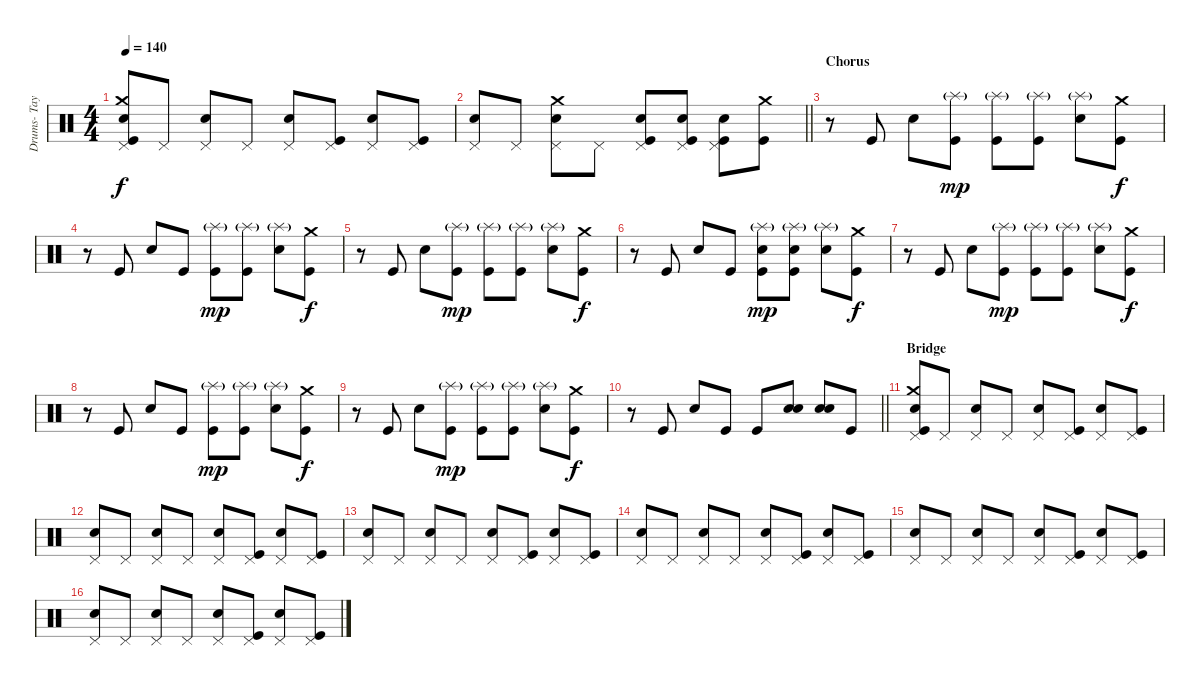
\track ("Drums- Taylor Hawkins" "Drums- Tay") {instrument percussion}
\staff {score}
\articulation defaults
\ts (4 4)
\tempo 140
\clef neutral
\ks c
("Kick (hit)" "Crash medium (hit)" "Snare (hit) 2" "Pedal Hi-Hat (hit)").8{dy f} "Pedal Hi-Hat (hit)".8 ("Snare (hit) 2" "Pedal Hi-Hat (hit)").8 "Pedal Hi-Hat (hit)".8 ("Snare (hit) 2" "Pedal Hi-Hat (hit)").8 ("Pedal Hi-Hat (hit)" "Kick (hit)").8 ("Snare (hit) 2" "Pedal Hi-Hat (hit)").8 ("Pedal Hi-Hat (hit)" "Kick (hit)").8 |
\barLineRight lightlight
("Snare (hit) 2" "Pedal Hi-Hat (hit)").8 "Pedal Hi-Hat (hit)".8 ("Crash medium (hit)" "Snare (hit) 2" "Pedal Hi-Hat (hit)").8 "Pedal Hi-Hat (hit)".8 ("Pedal Hi-Hat (hit)" "Snare (hit) 2" "Kick (hit)").8 ("Pedal Hi-Hat (hit)" "Snare (hit) 2" "Kick (hit)").8 ("Pedal Hi-Hat (hit)" "Snare (hit) 2" "Kick (hit)").8 ("Crash medium (hit)" "Kick (hit)").8 |
\section ("" "Chorus")
r.8 "Kick (hit)".8 "Snare (hit) 2".8 ("Splash (hit)"{g} "Kick (hit)").8{dy mp} ("Splash (hit)"{g} "Kick (hit)").8 ("Splash (hit)"{g} "Kick (hit)").8 ("Splash (hit)"{g} "Snare (hit) 2").8 ("Crash medium (hit)" "Kick (hit)").8{dy f} |
r.8 "Kick (hit)".8 "Snare (hit) 2".8 "Kick (hit)".8 ("Splash (hit)"{g} "Kick (hit)").8{dy mp} ("Splash (hit)"{g} "Kick (hit)").8 ("Splash (hit)"{g} "Snare (hit) 2").8 ("Crash medium (hit)" "Kick (hit)").8{dy f} |
r.8 "Kick (hit)".8 "Snare (hit) 2".8 ("Splash (hit)"{g} "Kick (hit)").8{dy mp} ("Splash (hit)"{g} "Kick (hit)").8 ("Splash (hit)"{g} "Kick (hit)").8 ("Splash (hit)"{g} "Snare (hit) 2").8 ("Crash medium (hit)" "Kick (hit)").8{dy f} |
r.8 "Kick (hit)".8 "Snare (hit) 2".8 "Kick (hit)".8 ("Splash (hit)"{g} "Snare (hit) 2" "Kick (hit)").8{dy mp} ("Splash (hit)"{g} "Snare (hit) 2" "Kick (hit)").8 ("Splash (hit)"{g} "Snare (hit) 2").8 ("Crash medium (hit)" "Kick (hit)").8{dy f} |
r.8 "Kick (hit)".8 "Snare (hit) 2".8 ("Splash (hit)"{g} "Kick (hit)").8{dy mp} ("Splash (hit)"{g} "Kick (hit)").8 ("Splash (hit)"{g} "Kick (hit)").8 ("Splash (hit)"{g} "Snare (hit) 2").8 ("Crash medium (hit)" "Kick (hit)").8{dy f} |
r.8 "Kick (hit)".8 "Snare (hit) 2".8 "Kick (hit)".8 ("Splash (hit)"{g} "Kick (hit)").8{dy mp} ("Splash (hit)"{g} "Kick (hit)").8 ("Splash (hit)"{g} "Snare (hit) 2").8 ("Crash medium (hit)" "Kick (hit)").8{dy f} |
r.8 "Kick (hit)".8 "Snare (hit) 2".8 ("Splash (hit)"{g} "Kick (hit)").8{dy mp} ("Splash (hit)"{g} "Kick (hit)").8 ("Splash (hit)"{g} "Kick (hit)").8 ("Splash (hit)"{g} "Snare (hit) 2").8 ("Crash medium (hit)" "Kick (hit)").8{dy f} |
\barLineRight lightlight
r.8 "Kick (hit)".8 "Snare (hit) 2".8 "Kick (hit)".8 "Kick (hit)".8 ("Electric Snare (hit)" "Snare (hit) 2").8 ("Electric Snare (hit)" "Snare (hit) 2").8 "Kick (hit)".8 |
\section ("" "Bridge")
("Kick (hit)" "Crash medium (hit)" "Snare (hit) 2" "Pedal Hi-Hat (hit)").8 "Pedal Hi-Hat (hit)".8 ("Snare (hit) 2" "Pedal Hi-Hat (hit)").8 "Pedal Hi-Hat (hit)".8 ("Snare (hit) 2" "Pedal Hi-Hat (hit)").8 ("Pedal Hi-Hat (hit)" "Kick (hit)").8 ("Snare (hit) 2" "Pedal Hi-Hat (hit)").8 ("Pedal Hi-Hat (hit)" "Kick (hit)").8 |
("Snare (hit) 2" "Pedal Hi-Hat (hit)").8 "Pedal Hi-Hat (hit)".8 ("Snare (hit) 2" "Pedal Hi-Hat (hit)").8 "Pedal Hi-Hat (hit)".8 ("Snare (hit) 2" "Pedal Hi-Hat (hit)").8 ("Pedal Hi-Hat (hit)" "Kick (hit)").8 ("Snare (hit) 2" "Pedal Hi-Hat (hit)").8 ("Pedal Hi-Hat (hit)" "Kick (hit)").8 |
("Snare (hit) 2" "Pedal Hi-Hat (hit)").8 "Pedal Hi-Hat (hit)".8 ("Snare (hit) 2" "Pedal Hi-Hat (hit)").8 "Pedal Hi-Hat (hit)".8 ("Snare (hit) 2" "Pedal Hi-Hat (hit)").8 ("Pedal Hi-Hat (hit)" "Kick (hit)").8 ("Snare (hit) 2" "Pedal Hi-Hat (hit)").8 ("Pedal Hi-Hat (hit)" "Kick (hit)").8 |
("Snare (hit) 2" "Pedal Hi-Hat (hit)").8 "Pedal Hi-Hat (hit)".8 ("Snare (hit) 2" "Pedal Hi-Hat (hit)").8 "Pedal Hi-Hat (hit)".8 ("Snare (hit) 2" "Pedal Hi-Hat (hit)").8 ("Pedal Hi-Hat (hit)" "Kick (hit)").8 ("Snare (hit) 2" "Pedal Hi-Hat (hit)").8 ("Pedal Hi-Hat (hit)" "Kick (hit)").8 |
("Snare (hit) 2" "Pedal Hi-Hat (hit)").8 "Pedal Hi-Hat (hit)".8 ("Snare (hit) 2" "Pedal Hi-Hat (hit)").8 "Pedal Hi-Hat (hit)".8 ("Snare (hit) 2" "Pedal Hi-Hat (hit)").8 ("Pedal Hi-Hat (hit)" "Kick (hit)").8 ("Snare (hit) 2" "Pedal Hi-Hat (hit)").8 ("Pedal Hi-Hat (hit)" "Kick (hit)").8 |
("Snare (hit) 2" "Pedal Hi-Hat (hit)").8 "Pedal Hi-Hat (hit)".8 ("Snare (hit) 2" "Pedal Hi-Hat (hit)").8 "Pedal Hi-Hat (hit)".8 ("Snare (hit) 2" "Pedal Hi-Hat (hit)").8 ("Pedal Hi-Hat (hit)" "Kick (hit)").8 ("Snare (hit) 2" "Pedal Hi-Hat (hit)").8 ("Pedal Hi-Hat (hit)" "Kick (hit)").8
